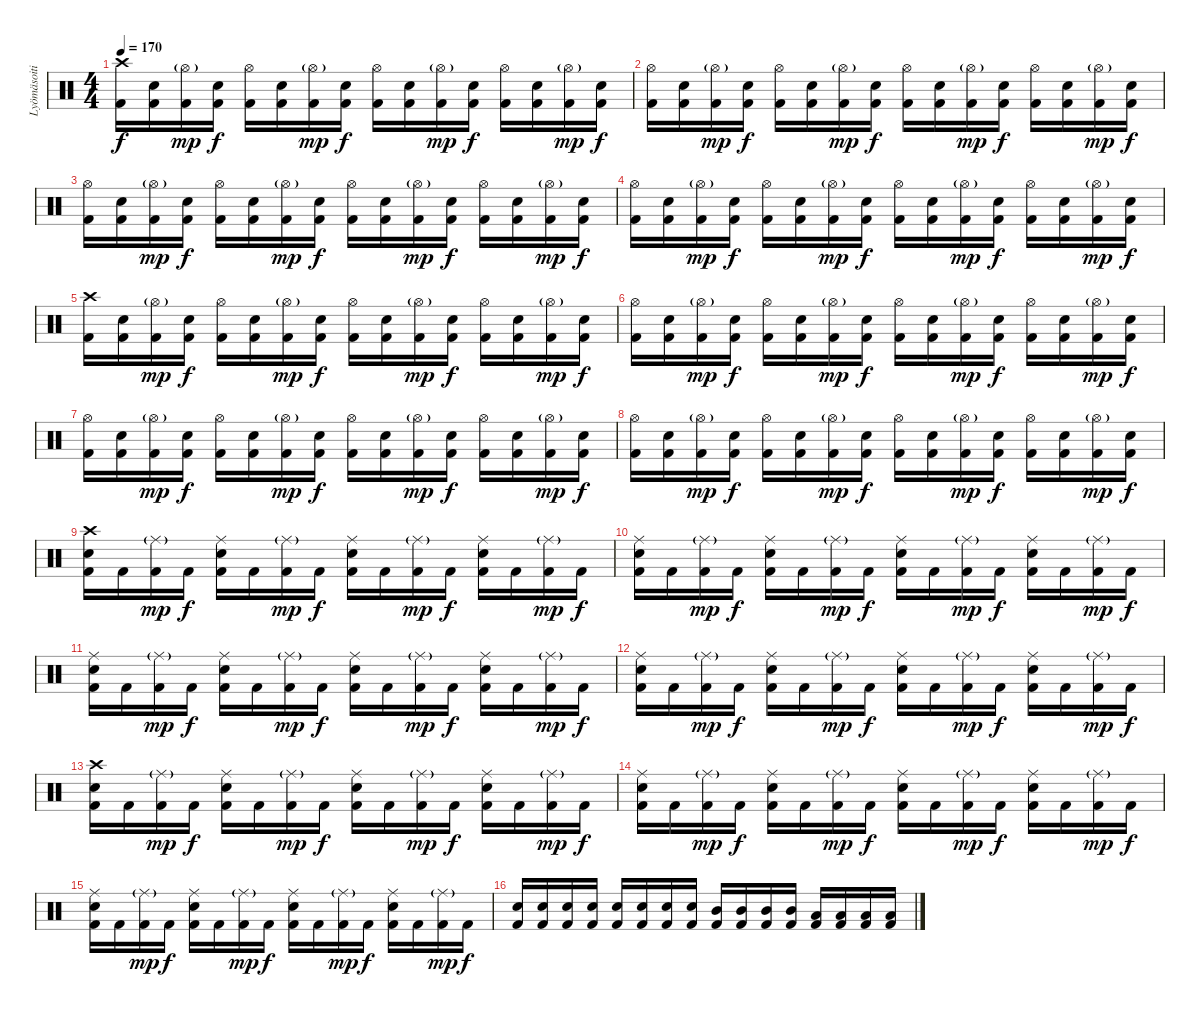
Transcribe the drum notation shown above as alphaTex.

\track ("Lyömäsoitin" "Lyömäsoiti") {instrument percussion}
\staff {score}
\articulation defaults
\ts (4 4)
\tempo 170
\clef neutral
\ks c
("Kick (hit) 2" "Crash high (hit)").16{dy f} ("Kick (hit) 2" "Electric Snare (hit)").16 ("Kick (hit) 2" "Hi-Hat (open)"{g}).16{dy mp} ("Kick (hit) 2" "Electric Snare (hit)").16{dy f} ("Kick (hit) 2" "Hi-Hat (open)").16 ("Kick (hit) 2" "Electric Snare (hit)").16 ("Kick (hit) 2" "Hi-Hat (open)"{g}).16{dy mp} ("Kick (hit) 2" "Electric Snare (hit)").16{dy f} ("Kick (hit) 2" "Hi-Hat (open)").16 ("Kick (hit) 2" "Electric Snare (hit)").16 ("Kick (hit) 2" "Hi-Hat (open)"{g}).16{dy mp} ("Kick (hit) 2" "Electric Snare (hit)").16{dy f} ("Kick (hit) 2" "Hi-Hat (open)").16 ("Kick (hit) 2" "Electric Snare (hit)").16 ("Kick (hit) 2" "Hi-Hat (open)"{g}).16{dy mp} ("Kick (hit) 2" "Electric Snare (hit)").16{dy f} |
("Kick (hit) 2" "Hi-Hat (open)").16 ("Kick (hit) 2" "Electric Snare (hit)").16 ("Kick (hit) 2" "Hi-Hat (open)"{g}).16{dy mp} ("Kick (hit) 2" "Electric Snare (hit)").16{dy f} ("Kick (hit) 2" "Hi-Hat (open)").16 ("Kick (hit) 2" "Electric Snare (hit)").16 ("Kick (hit) 2" "Hi-Hat (open)"{g}).16{dy mp} ("Kick (hit) 2" "Electric Snare (hit)").16{dy f} ("Kick (hit) 2" "Hi-Hat (open)").16 ("Kick (hit) 2" "Electric Snare (hit)").16 ("Kick (hit) 2" "Hi-Hat (open)"{g}).16{dy mp} ("Kick (hit) 2" "Electric Snare (hit)").16{dy f} ("Kick (hit) 2" "Hi-Hat (open)").16 ("Kick (hit) 2" "Electric Snare (hit)").16 ("Kick (hit) 2" "Hi-Hat (open)"{g}).16{dy mp} ("Kick (hit) 2" "Electric Snare (hit)").16{dy f} |
("Kick (hit) 2" "Hi-Hat (open)").16 ("Kick (hit) 2" "Electric Snare (hit)").16 ("Kick (hit) 2" "Hi-Hat (open)"{g}).16{dy mp} ("Kick (hit) 2" "Electric Snare (hit)").16{dy f} ("Kick (hit) 2" "Hi-Hat (open)").16 ("Kick (hit) 2" "Electric Snare (hit)").16 ("Kick (hit) 2" "Hi-Hat (open)"{g}).16{dy mp} ("Kick (hit) 2" "Electric Snare (hit)").16{dy f} ("Kick (hit) 2" "Hi-Hat (open)").16 ("Kick (hit) 2" "Electric Snare (hit)").16 ("Kick (hit) 2" "Hi-Hat (open)"{g}).16{dy mp} ("Kick (hit) 2" "Electric Snare (hit)").16{dy f} ("Kick (hit) 2" "Hi-Hat (open)").16 ("Kick (hit) 2" "Electric Snare (hit)").16 ("Kick (hit) 2" "Hi-Hat (open)"{g}).16{dy mp} ("Kick (hit) 2" "Electric Snare (hit)").16{dy f} |
("Kick (hit) 2" "Hi-Hat (open)").16 ("Kick (hit) 2" "Electric Snare (hit)").16 ("Kick (hit) 2" "Hi-Hat (open)"{g}).16{dy mp} ("Kick (hit) 2" "Electric Snare (hit)").16{dy f} ("Kick (hit) 2" "Hi-Hat (open)").16 ("Kick (hit) 2" "Electric Snare (hit)").16 ("Kick (hit) 2" "Hi-Hat (open)"{g}).16{dy mp} ("Kick (hit) 2" "Electric Snare (hit)").16{dy f} ("Kick (hit) 2" "Hi-Hat (open)").16 ("Kick (hit) 2" "Electric Snare (hit)").16 ("Kick (hit) 2" "Hi-Hat (open)"{g}).16{dy mp} ("Kick (hit) 2" "Electric Snare (hit)").16{dy f} ("Kick (hit) 2" "Hi-Hat (open)").16 ("Kick (hit) 2" "Electric Snare (hit)").16 ("Kick (hit) 2" "Hi-Hat (open)"{g}).16{dy mp} ("Kick (hit) 2" "Electric Snare (hit)").16{dy f} |
("Kick (hit) 2" "Crash high (hit)").16 ("Kick (hit) 2" "Electric Snare (hit)").16 ("Kick (hit) 2" "Hi-Hat (open)"{g}).16{dy mp} ("Kick (hit) 2" "Electric Snare (hit)").16{dy f} ("Kick (hit) 2" "Hi-Hat (open)").16 ("Kick (hit) 2" "Electric Snare (hit)").16 ("Kick (hit) 2" "Hi-Hat (open)"{g}).16{dy mp} ("Kick (hit) 2" "Electric Snare (hit)").16{dy f} ("Kick (hit) 2" "Hi-Hat (open)").16 ("Kick (hit) 2" "Electric Snare (hit)").16 ("Kick (hit) 2" "Hi-Hat (open)"{g}).16{dy mp} ("Kick (hit) 2" "Electric Snare (hit)").16{dy f} ("Kick (hit) 2" "Hi-Hat (open)").16 ("Kick (hit) 2" "Electric Snare (hit)").16 ("Kick (hit) 2" "Hi-Hat (open)"{g}).16{dy mp} ("Kick (hit) 2" "Electric Snare (hit)").16{dy f} |
("Kick (hit) 2" "Hi-Hat (open)").16 ("Kick (hit) 2" "Electric Snare (hit)").16 ("Kick (hit) 2" "Hi-Hat (open)"{g}).16{dy mp} ("Kick (hit) 2" "Electric Snare (hit)").16{dy f} ("Kick (hit) 2" "Hi-Hat (open)").16 ("Kick (hit) 2" "Electric Snare (hit)").16 ("Kick (hit) 2" "Hi-Hat (open)"{g}).16{dy mp} ("Kick (hit) 2" "Electric Snare (hit)").16{dy f} ("Kick (hit) 2" "Hi-Hat (open)").16 ("Kick (hit) 2" "Electric Snare (hit)").16 ("Kick (hit) 2" "Hi-Hat (open)"{g}).16{dy mp} ("Kick (hit) 2" "Electric Snare (hit)").16{dy f} ("Kick (hit) 2" "Hi-Hat (open)").16 ("Kick (hit) 2" "Electric Snare (hit)").16 ("Kick (hit) 2" "Hi-Hat (open)"{g}).16{dy mp} ("Kick (hit) 2" "Electric Snare (hit)").16{dy f} |
("Kick (hit) 2" "Hi-Hat (open)").16 ("Kick (hit) 2" "Electric Snare (hit)").16 ("Kick (hit) 2" "Hi-Hat (open)"{g}).16{dy mp} ("Kick (hit) 2" "Electric Snare (hit)").16{dy f} ("Kick (hit) 2" "Hi-Hat (open)").16 ("Kick (hit) 2" "Electric Snare (hit)").16 ("Kick (hit) 2" "Hi-Hat (open)"{g}).16{dy mp} ("Kick (hit) 2" "Electric Snare (hit)").16{dy f} ("Kick (hit) 2" "Hi-Hat (open)").16 ("Kick (hit) 2" "Electric Snare (hit)").16 ("Kick (hit) 2" "Hi-Hat (open)"{g}).16{dy mp} ("Kick (hit) 2" "Electric Snare (hit)").16{dy f} ("Kick (hit) 2" "Hi-Hat (open)").16 ("Kick (hit) 2" "Electric Snare (hit)").16 ("Kick (hit) 2" "Hi-Hat (open)"{g}).16{dy mp} ("Kick (hit) 2" "Electric Snare (hit)").16{dy f} |
("Kick (hit) 2" "Hi-Hat (open)").16 ("Kick (hit) 2" "Electric Snare (hit)").16 ("Kick (hit) 2" "Hi-Hat (open)"{g}).16{dy mp} ("Kick (hit) 2" "Electric Snare (hit)").16{dy f} ("Kick (hit) 2" "Hi-Hat (open)").16 ("Kick (hit) 2" "Electric Snare (hit)").16 ("Kick (hit) 2" "Hi-Hat (open)"{g}).16{dy mp} ("Kick (hit) 2" "Electric Snare (hit)").16{dy f} ("Kick (hit) 2" "Hi-Hat (open)").16 ("Kick (hit) 2" "Electric Snare (hit)").16 ("Kick (hit) 2" "Hi-Hat (open)"{g}).16{dy mp} ("Kick (hit) 2" "Electric Snare (hit)").16{dy f} ("Kick (hit) 2" "Hi-Hat (open)").16 ("Kick (hit) 2" "Electric Snare (hit)").16 ("Kick (hit) 2" "Hi-Hat (open)"{g}).16{dy mp} ("Kick (hit) 2" "Electric Snare (hit)").16{dy f} |
("Kick (hit) 2" "Electric Snare (hit)" "Crash high (hit)").16 "Kick (hit) 2".16 ("Kick (hit) 2" "Ride (middle)"{g}).16{dy mp} "Kick (hit) 2".16{dy f} ("Kick (hit) 2" "Electric Snare (hit)" "Ride (middle)").16 "Kick (hit) 2".16 ("Kick (hit) 2" "Ride (middle)"{g}).16{dy mp} "Kick (hit) 2".16{dy f} ("Kick (hit) 2" "Electric Snare (hit)" "Ride (middle)").16 "Kick (hit) 2".16 ("Kick (hit) 2" "Ride (middle)"{g}).16{dy mp} "Kick (hit) 2".16{dy f} ("Kick (hit) 2" "Electric Snare (hit)" "Ride (middle)").16 "Kick (hit) 2".16 ("Kick (hit) 2" "Ride (middle)"{g}).16{dy mp} "Kick (hit) 2".16{dy f} |
("Kick (hit) 2" "Electric Snare (hit)" "Ride (middle)").16 "Kick (hit) 2".16 ("Kick (hit) 2" "Ride (middle)"{g}).16{dy mp} "Kick (hit) 2".16{dy f} ("Kick (hit) 2" "Electric Snare (hit)" "Ride (middle)").16 "Kick (hit) 2".16 ("Kick (hit) 2" "Ride (middle)"{g}).16{dy mp} "Kick (hit) 2".16{dy f} ("Kick (hit) 2" "Electric Snare (hit)" "Ride (middle)").16 "Kick (hit) 2".16 ("Kick (hit) 2" "Ride (middle)"{g}).16{dy mp} "Kick (hit) 2".16{dy f} ("Kick (hit) 2" "Electric Snare (hit)" "Ride (middle)").16 "Kick (hit) 2".16 ("Kick (hit) 2" "Ride (middle)"{g}).16{dy mp} "Kick (hit) 2".16{dy f} |
("Kick (hit) 2" "Electric Snare (hit)" "Ride (middle)").16 "Kick (hit) 2".16 ("Kick (hit) 2" "Ride (middle)"{g}).16{dy mp} "Kick (hit) 2".16{dy f} ("Kick (hit) 2" "Electric Snare (hit)" "Ride (middle)").16 "Kick (hit) 2".16 ("Kick (hit) 2" "Ride (middle)"{g}).16{dy mp} "Kick (hit) 2".16{dy f} ("Kick (hit) 2" "Electric Snare (hit)" "Ride (middle)").16 "Kick (hit) 2".16 ("Kick (hit) 2" "Ride (middle)"{g}).16{dy mp} "Kick (hit) 2".16{dy f} ("Kick (hit) 2" "Electric Snare (hit)" "Ride (middle)").16 "Kick (hit) 2".16 ("Kick (hit) 2" "Ride (middle)"{g}).16{dy mp} "Kick (hit) 2".16{dy f} |
("Kick (hit) 2" "Electric Snare (hit)" "Ride (middle)").16 "Kick (hit) 2".16 ("Kick (hit) 2" "Ride (middle)"{g}).16{dy mp} "Kick (hit) 2".16{dy f} ("Kick (hit) 2" "Electric Snare (hit)" "Ride (middle)").16 "Kick (hit) 2".16 ("Kick (hit) 2" "Ride (middle)"{g}).16{dy mp} "Kick (hit) 2".16{dy f} ("Kick (hit) 2" "Electric Snare (hit)" "Ride (middle)").16 "Kick (hit) 2".16 ("Kick (hit) 2" "Ride (middle)"{g}).16{dy mp} "Kick (hit) 2".16{dy f} ("Kick (hit) 2" "Electric Snare (hit)" "Ride (middle)").16 "Kick (hit) 2".16 ("Kick (hit) 2" "Ride (middle)"{g}).16{dy mp} "Kick (hit) 2".16{dy f} |
("Kick (hit) 2" "Electric Snare (hit)" "Crash high (hit)").16 "Kick (hit) 2".16 ("Kick (hit) 2" "Ride (middle)"{g}).16{dy mp} "Kick (hit) 2".16{dy f} ("Kick (hit) 2" "Electric Snare (hit)" "Ride (middle)").16 "Kick (hit) 2".16 ("Kick (hit) 2" "Ride (middle)"{g}).16{dy mp} "Kick (hit) 2".16{dy f} ("Kick (hit) 2" "Electric Snare (hit)" "Ride (middle)").16 "Kick (hit) 2".16 ("Kick (hit) 2" "Ride (middle)"{g}).16{dy mp} "Kick (hit) 2".16{dy f} ("Kick (hit) 2" "Electric Snare (hit)" "Ride (middle)").16 "Kick (hit) 2".16 ("Kick (hit) 2" "Ride (middle)"{g}).16{dy mp} "Kick (hit) 2".16{dy f} |
("Kick (hit) 2" "Electric Snare (hit)" "Ride (middle)").16 "Kick (hit) 2".16 ("Kick (hit) 2" "Ride (middle)"{g}).16{dy mp} "Kick (hit) 2".16{dy f} ("Kick (hit) 2" "Electric Snare (hit)" "Ride (middle)").16 "Kick (hit) 2".16 ("Kick (hit) 2" "Ride (middle)"{g}).16{dy mp} "Kick (hit) 2".16{dy f} ("Kick (hit) 2" "Electric Snare (hit)" "Ride (middle)").16 "Kick (hit) 2".16 ("Kick (hit) 2" "Ride (middle)"{g}).16{dy mp} "Kick (hit) 2".16{dy f} ("Kick (hit) 2" "Electric Snare (hit)" "Ride (middle)").16 "Kick (hit) 2".16 ("Kick (hit) 2" "Ride (middle)"{g}).16{dy mp} "Kick (hit) 2".16{dy f} |
("Kick (hit) 2" "Electric Snare (hit)" "Ride (middle)").16 "Kick (hit) 2".16 ("Kick (hit) 2" "Ride (middle)"{g}).16{dy mp} "Kick (hit) 2".16{dy f} ("Kick (hit) 2" "Electric Snare (hit)" "Ride (middle)").16 "Kick (hit) 2".16 ("Kick (hit) 2" "Ride (middle)"{g}).16{dy mp} "Kick (hit) 2".16{dy f} ("Kick (hit) 2" "Electric Snare (hit)" "Ride (middle)").16 "Kick (hit) 2".16 ("Kick (hit) 2" "Ride (middle)"{g}).16{dy mp} "Kick (hit) 2".16{dy f} ("Kick (hit) 2" "Electric Snare (hit)" "Ride (middle)").16 "Kick (hit) 2".16 ("Kick (hit) 2" "Ride (middle)"{g}).16{dy mp} "Kick (hit) 2".16{dy f} |
("Kick (hit) 2" "Electric Snare (hit)").16 ("Kick (hit) 2" "Electric Snare (hit)").16 ("Kick (hit) 2" "Electric Snare (hit)").16 ("Kick (hit) 2" "Electric Snare (hit)").16 ("Kick (hit) 2" "Electric Snare (hit)").16 ("Kick (hit) 2" "Electric Snare (hit)").16 ("Kick (hit) 2" "Electric Snare (hit)").16 ("Kick (hit) 2" "Electric Snare (hit)").16 ("Kick (hit) 2" "Mid Tom (hit)").16 ("Kick (hit) 2" "Mid Tom (hit)").16 ("Kick (hit) 2" "Mid Tom (hit)").16 ("Kick (hit) 2" "Mid Tom (hit)").16 ("Kick (hit) 2" "Low Tom (hit)").16 ("Kick (hit) 2" "Low Tom (hit)").16 ("Kick (hit) 2" "Low Tom (hit)").16 ("Kick (hit) 2" "Low Tom (hit)").16
